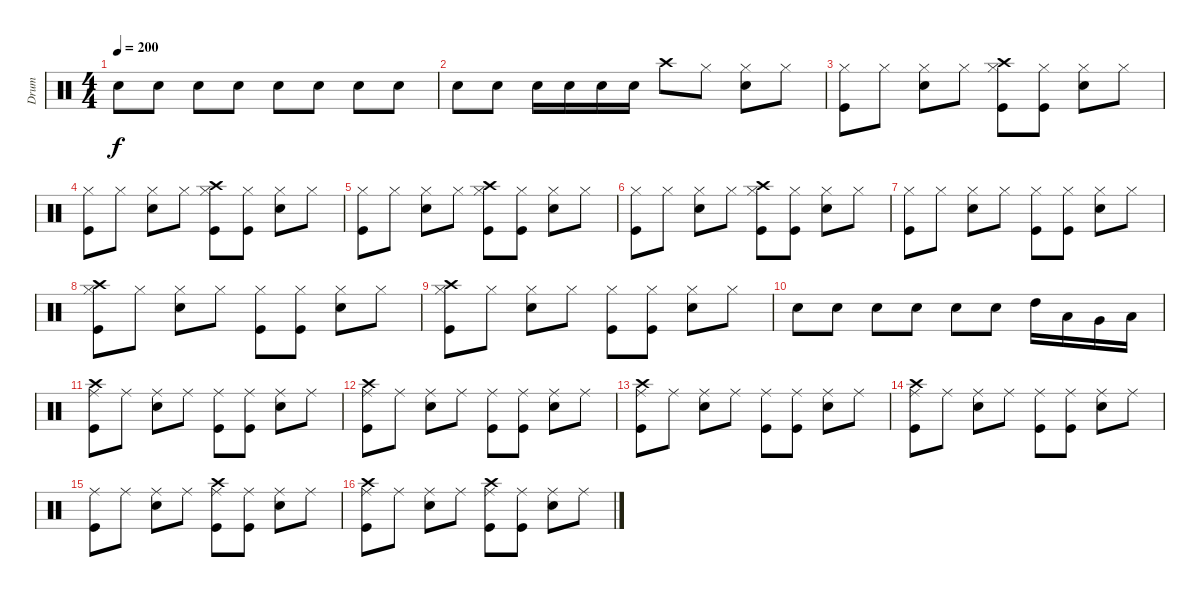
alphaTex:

\track ("Drum" "Drum") {instrument percussion}
\staff {score}
\articulation defaults
\ts (4 4)
\tempo 200
\clef neutral
\ks c "Electric Snare (hit)".8{dy f} "Electric Snare (hit)".8 "Electric Snare (hit)".8 "Electric Snare (hit)".8 "Electric Snare (hit)".8 "Electric Snare (hit)".8 "Electric Snare (hit)".8 "Electric Snare (hit)".8
|
"Electric Snare (hit)".8 "Electric Snare (hit)".8 "Electric Snare (hit)".16 "Electric Snare (hit)".16 "Electric Snare (hit)".16 "Electric Snare (hit)".16 "Crash high (hit)".8 "Hi-Hat (closed)".8 ("Hi-Hat (closed)" "Electric Snare (hit)").8 "Hi-Hat (closed)".8 |
("Hi-Hat (closed)" "Kick (hit)").8 "Hi-Hat (closed)".8 ("Hi-Hat (closed)" "Electric Snare (hit)").8 "Hi-Hat (closed)".8 ("Crash high (hit)" "Hi-Hat (closed)" "Kick (hit)").8 ("Hi-Hat (closed)" "Kick (hit)").8 ("Hi-Hat (closed)" "Electric Snare (hit)").8 "Hi-Hat (closed)".8 |
("Hi-Hat (closed)" "Kick (hit)").8 "Hi-Hat (closed)".8 ("Hi-Hat (closed)" "Electric Snare (hit)").8 "Hi-Hat (closed)".8 ("Crash high (hit)" "Hi-Hat (closed)" "Kick (hit)").8 ("Hi-Hat (closed)" "Kick (hit)").8 ("Hi-Hat (closed)" "Electric Snare (hit)").8 "Hi-Hat (closed)".8 |
("Hi-Hat (closed)" "Kick (hit)").8 "Hi-Hat (closed)".8 ("Hi-Hat (closed)" "Electric Snare (hit)").8 "Hi-Hat (closed)".8 ("Crash high (hit)" "Hi-Hat (closed)" "Kick (hit)").8 ("Hi-Hat (closed)" "Kick (hit)").8 ("Hi-Hat (closed)" "Electric Snare (hit)").8 "Hi-Hat (closed)".8 |
("Hi-Hat (closed)" "Kick (hit)").8 "Hi-Hat (closed)".8 ("Hi-Hat (closed)" "Electric Snare (hit)").8 "Hi-Hat (closed)".8 ("Crash high (hit)" "Hi-Hat (closed)" "Kick (hit)").8 ("Hi-Hat (closed)" "Kick (hit)").8 ("Hi-Hat (closed)" "Electric Snare (hit)").8 "Hi-Hat (closed)".8 |
("Hi-Hat (closed)" "Kick (hit)").8 "Hi-Hat (closed)".8 ("Hi-Hat (closed)" "Electric Snare (hit)").8 "Hi-Hat (closed)".8 ("Hi-Hat (closed)" "Kick (hit)").8 ("Hi-Hat (closed)" "Kick (hit)").8 ("Hi-Hat (closed)" "Electric Snare (hit)").8 "Hi-Hat (closed)".8 |
("Crash high (hit)" "Hi-Hat (closed)" "Kick (hit)").8 "Hi-Hat (closed)".8 ("Hi-Hat (closed)" "Electric Snare (hit)").8 "Hi-Hat (closed)".8 ("Hi-Hat (closed)" "Kick (hit)").8 ("Hi-Hat (closed)" "Kick (hit)").8 ("Hi-Hat (closed)" "Electric Snare (hit)").8 "Hi-Hat (closed)".8 |
("Crash high (hit)" "Hi-Hat (closed)" "Kick (hit)").8 "Hi-Hat (closed)".8 ("Hi-Hat (closed)" "Electric Snare (hit)").8 "Hi-Hat (closed)".8 ("Hi-Hat (closed)" "Kick (hit)").8 ("Hi-Hat (closed)" "Kick (hit)").8 ("Hi-Hat (closed)" "Electric Snare (hit)").8 "Hi-Hat (closed)".8 |
"Electric Snare (hit)".8 "Electric Snare (hit)".8 "Electric Snare (hit)".8 "Electric Snare (hit)".8 "Electric Snare (hit)".8 "Electric Snare (hit)".8 "High Tom (hit)".16 "Low Tom (hit)".16 "Very Low Tom (hit)".16 "Low Floor Tom (hit)".16 |
("Crash high (hit)" "Ride (middle)" "Kick (hit)").8 "Ride (middle)".8 ("Ride (middle)" "Electric Snare (hit)").8 "Ride (middle)".8 ("Ride (middle)" "Kick (hit)").8 ("Ride (middle)" "Kick (hit)").8 ("Ride (middle)" "Electric Snare (hit)").8 "Ride (middle)".8 |
("Crash high (hit)" "Ride (middle)" "Kick (hit)").8 "Ride (middle)".8 ("Ride (middle)" "Electric Snare (hit)").8 "Ride (middle)".8 ("Ride (middle)" "Kick (hit)").8 ("Ride (middle)" "Kick (hit)").8 ("Ride (middle)" "Electric Snare (hit)").8 "Ride (middle)".8 |
("Crash high (hit)" "Ride (middle)" "Kick (hit)").8 "Ride (middle)".8 ("Ride (middle)" "Electric Snare (hit)").8 "Ride (middle)".8 ("Ride (middle)" "Kick (hit)").8 ("Ride (middle)" "Kick (hit)").8 ("Ride (middle)" "Electric Snare (hit)").8 "Ride (middle)".8 |
("Crash high (hit)" "Ride (middle)" "Kick (hit)").8 "Ride (middle)".8 ("Ride (middle)" "Electric Snare (hit)").8 "Ride (middle)".8 ("Ride (middle)" "Kick (hit)").8 ("Ride (middle)" "Kick (hit)").8 ("Ride (middle)" "Electric Snare (hit)").8 "Ride (middle)".8 |
("Ride (middle)" "Kick (hit)").8 "Ride (middle)".8 ("Ride (middle)" "Electric Snare (hit)").8 "Ride (middle)".8 ("Crash high (hit)" "Ride (middle)" "Kick (hit)").8 ("Ride (middle)" "Kick (hit)").8 ("Ride (middle)" "Electric Snare (hit)").8 "Ride (middle)".8 |
("Crash high (hit)" "Ride (middle)" "Kick (hit)").8 "Ride (middle)".8 ("Ride (middle)" "Electric Snare (hit)").8 "Ride (middle)".8 ("Crash high (hit)" "Ride (middle)" "Kick (hit)").8 ("Ride (middle)" "Kick (hit)").8 ("Ride (middle)" "Electric Snare (hit)").8 "Ride (middle)".8
